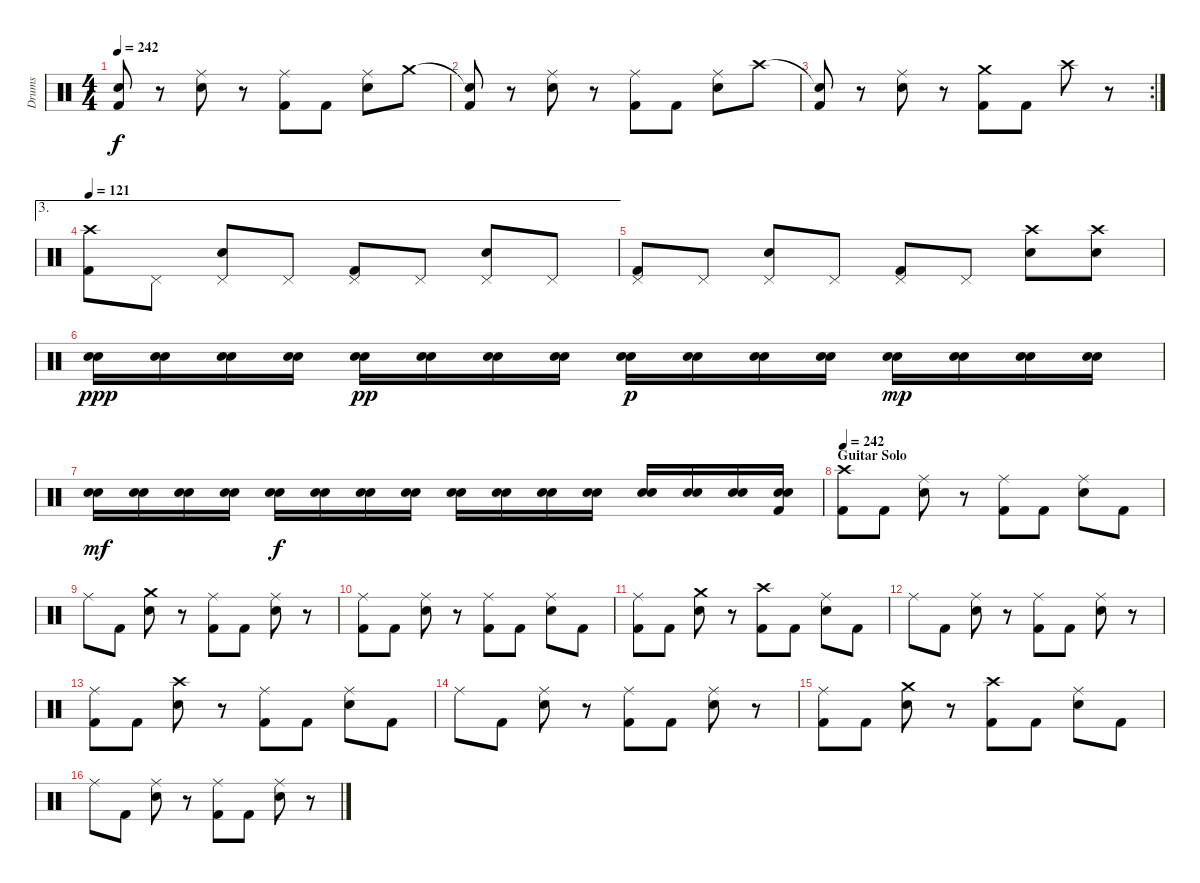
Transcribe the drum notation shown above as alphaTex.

\track ("Drums" "Drums") {instrument percussion}
\staff {score}
\articulation defaults
\ts (4 4)
\tempo 242
\clef neutral
\ks c
("Snare (hit)"{t} "Kick (hit) 2").8{dy f} r.8 ("Ride (middle)" "Electric Snare (hit)").8 r.8 ("Ride (middle)" "Kick (hit) 2").8 "Kick (hit) 2".8 ("Ride (middle)" "Electric Snare (hit)").8 "Crash medium (hit)".8 |
("Snare (hit)"{t} "Kick (hit) 2").8 r.8 ("Ride (middle)" "Electric Snare (hit)").8 r.8 ("Ride (middle)" "Kick (hit) 2").8 "Kick (hit) 2".8 ("Ride (middle)" "Electric Snare (hit)").8 "Crash high (hit)".8 |
\rc 2
("Snare (hit)"{t} "Kick (hit) 2").8 r.8 ("Ride (middle)" "Electric Snare (hit)").8 r.8 ("Crash medium (hit)" "Kick (hit) 2").8 "Kick (hit) 2".8 "Crash high (hit)".8 r.8 |
\ae 3
\tempo 121
("Crash high (hit)" "Kick (hit) 2").8 "Pedal Hi-Hat (hit)".8 ("Pedal Hi-Hat (hit)" "Electric Snare (hit)").8 "Pedal Hi-Hat (hit)".8 ("Pedal Hi-Hat (hit)" "Kick (hit) 2").8 "Pedal Hi-Hat (hit)".8 ("Pedal Hi-Hat (hit)" "Electric Snare (hit)").8 "Pedal Hi-Hat (hit)".8 |
("Pedal Hi-Hat (hit)" "Kick (hit) 2").8 "Pedal Hi-Hat (hit)".8 ("Pedal Hi-Hat (hit)" "Electric Snare (hit)").8 "Pedal Hi-Hat (hit)".8 ("Pedal Hi-Hat (hit)" "Kick (hit) 2").8 "Pedal Hi-Hat (hit)".8 ("Crash high (hit)" "Electric Snare (hit)").8 ("Crash high (hit)" "Electric Snare (hit)").8 |
("Electric Snare (hit)" "Electric Snare (hit)").16{dy ppp} ("Electric Snare (hit)" "Electric Snare (hit)").16 ("Electric Snare (hit)" "Electric Snare (hit)").16 ("Electric Snare (hit)" "Electric Snare (hit)").16 ("Electric Snare (hit)" "Electric Snare (hit)").16{dy pp} ("Electric Snare (hit)" "Electric Snare (hit)").16 ("Electric Snare (hit)" "Electric Snare (hit)").16 ("Electric Snare (hit)" "Electric Snare (hit)").16 ("Electric Snare (hit)" "Electric Snare (hit)").16{dy p} ("Electric Snare (hit)" "Electric Snare (hit)").16 ("Electric Snare (hit)" "Electric Snare (hit)").16 ("Electric Snare (hit)" "Electric Snare (hit)").16 ("Electric Snare (hit)" "Electric Snare (hit)").16{dy mp} ("Electric Snare (hit)" "Electric Snare (hit)").16 ("Electric Snare (hit)" "Electric Snare (hit)").16 ("Electric Snare (hit)" "Electric Snare (hit)").16 |
("Electric Snare (hit)" "Electric Snare (hit)").16{dy mf} ("Electric Snare (hit)" "Electric Snare (hit)").16 ("Electric Snare (hit)" "Electric Snare (hit)").16 ("Electric Snare (hit)" "Electric Snare (hit)").16 ("Electric Snare (hit)" "Electric Snare (hit)").16{dy f} ("Electric Snare (hit)" "Electric Snare (hit)").16 ("Electric Snare (hit)" "Electric Snare (hit)").16 ("Electric Snare (hit)" "Electric Snare (hit)").16 ("Electric Snare (hit)" "Electric Snare (hit)").16 ("Electric Snare (hit)" "Electric Snare (hit)").16 ("Electric Snare (hit)" "Electric Snare (hit)").16 ("Electric Snare (hit)" "Electric Snare (hit)").16 ("Electric Snare (hit)" "Electric Snare (hit)").16 ("Electric Snare (hit)" "Electric Snare (hit)").16 ("Electric Snare (hit)" "Electric Snare (hit)").16 ("Electric Snare (hit)" "Electric Snare (hit)" "Kick (hit) 2").16 |
\section ("" "Guitar Solo")
\tempo 242
("Crash high (hit)" "Kick (hit) 2").8 "Kick (hit) 2".8 ("Ride (middle)" "Electric Snare (hit)").8 r.8 ("Ride (middle)" "Kick (hit) 2").8 "Kick (hit) 2".8 ("Ride (middle)" "Electric Snare (hit)").8 "Kick (hit) 2".8 |
"Ride (middle)".8 "Kick (hit) 2".8 ("Electric Snare (hit)" "Crash medium (hit)").8 r.8 ("Ride (middle)" "Kick (hit) 2").8 "Kick (hit) 2".8 ("Ride (middle)" "Electric Snare (hit)").8 r.8 |
("Ride (middle)" "Kick (hit) 2").8 "Kick (hit) 2".8 ("Ride (middle)" "Electric Snare (hit)").8 r.8 ("Ride (middle)" "Kick (hit) 2").8 "Kick (hit) 2".8 ("Ride (middle)" "Electric Snare (hit)").8 "Kick (hit) 2".8 |
("Ride (middle)" "Kick (hit) 2").8 "Kick (hit) 2".8 ("Electric Snare (hit)" "Crash medium (hit)").8 r.8 ("Crash high (hit)" "Kick (hit) 2").8 "Kick (hit) 2".8 ("Ride (middle)" "Electric Snare (hit)").8 "Kick (hit) 2".8 |
"Ride (middle)".8 "Kick (hit) 2".8 ("Ride (middle)" "Electric Snare (hit)").8 r.8 ("Ride (middle)" "Kick (hit) 2").8 "Kick (hit) 2".8 ("Ride (middle)" "Electric Snare (hit)").8 r.8 |
("Ride (middle)" "Kick (hit) 2").8 "Kick (hit) 2".8 ("Electric Snare (hit)" "Crash high (hit)").8 r.8 ("Ride (middle)" "Kick (hit) 2").8 "Kick (hit) 2".8 ("Ride (middle)" "Electric Snare (hit)").8 "Kick (hit) 2".8 |
"Ride (middle)".8 "Kick (hit) 2".8 ("Ride (middle)" "Electric Snare (hit)").8 r.8 ("Ride (middle)" "Kick (hit) 2").8 "Kick (hit) 2".8 ("Ride (middle)" "Electric Snare (hit)").8 r.8 |
("Ride (middle)" "Kick (hit) 2").8 "Kick (hit) 2".8 ("Electric Snare (hit)" "Crash medium (hit)").8 r.8 ("Crash high (hit)" "Kick (hit) 2").8 "Kick (hit) 2".8 ("Ride (middle)" "Electric Snare (hit)").8 "Kick (hit) 2".8 |
"Ride (middle)".8 "Kick (hit) 2".8 ("Ride (middle)" "Electric Snare (hit)").8 r.8 ("Ride (middle)" "Kick (hit) 2").8 "Kick (hit) 2".8 ("Ride (middle)" "Electric Snare (hit)").8 r.8
